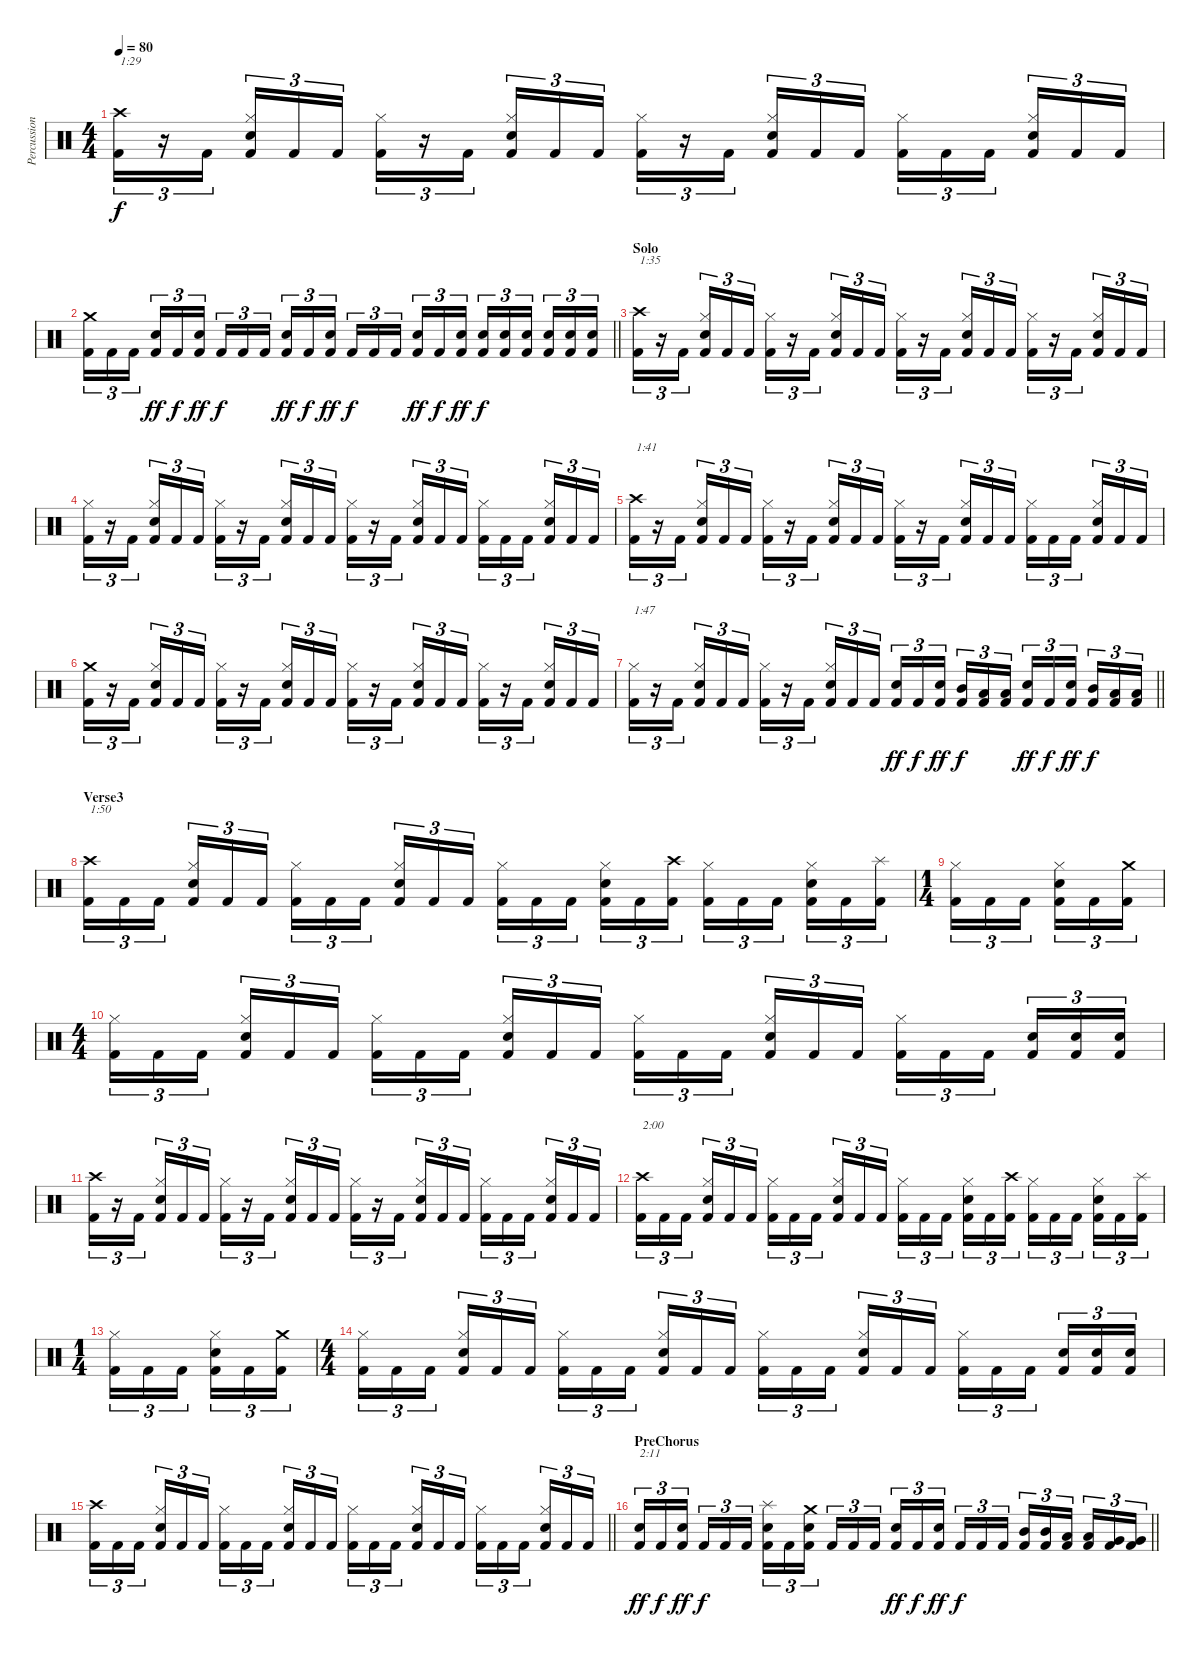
\track ("Percussion" "Percussion") {instrument percussion}
\staff {score}
\articulation defaults
\ts (4 4)
\tempo 80
\clef neutral
\ks c
("Crash high (hit)" "Kick (hit) 2").16{tu (3 2) txt "1:29" dy f} r.16{tu (3 2)} "Kick (hit) 2".16{tu (3 2) beam splitsecondary} ("Hi-Hat (closed)" "Snare (hit) 2" "Kick (hit) 2").16{tu (3 2)} "Kick (hit) 2".16{tu (3 2)} "Kick (hit) 2".16{tu (3 2)} ("Hi-Hat (closed)" "Kick (hit) 2").16{tu (3 2)} r.16{tu (3 2)} "Kick (hit) 2".16{tu (3 2) beam splitsecondary} ("Hi-Hat (closed)" "Snare (hit) 2" "Kick (hit) 2").16{tu (3 2)} "Kick (hit) 2".16{tu (3 2)} "Kick (hit) 2".16{tu (3 2)} ("Hi-Hat (closed)" "Kick (hit) 2").16{tu (3 2)} r.16{tu (3 2)} "Kick (hit) 2".16{tu (3 2) beam splitsecondary} ("Hi-Hat (closed)" "Snare (hit) 2" "Kick (hit) 2").16{tu (3 2)} "Kick (hit) 2".16{tu (3 2)} "Kick (hit) 2".16{tu (3 2)} ("Hi-Hat (closed)" "Kick (hit) 2").16{tu (3 2)} "Kick (hit) 2".16{tu (3 2)} "Kick (hit) 2".16{tu (3 2) beam splitsecondary} ("Hi-Hat (closed)" "Snare (hit) 2" "Kick (hit) 2").16{tu (3 2)} "Kick (hit) 2".16{tu (3 2)} "Kick (hit) 2".16{tu (3 2)} |
\barLineRight lightlight
("Crash medium (hit)" "Kick (hit) 2").16{tu (3 2)} "Kick (hit) 2".16{tu (3 2)} "Kick (hit) 2".16{tu (3 2) beam splitsecondary} ("Snare (hit) 2" "Kick (hit) 2").16{tu (3 2) dy ff} "Kick (hit) 2".16{tu (3 2) dy f} ("Snare (hit) 2" "Kick (hit) 2").16{tu (3 2) dy ff} "Kick (hit) 2".16{tu (3 2) dy f} "Kick (hit) 2".16{tu (3 2)} "Kick (hit) 2".16{tu (3 2) beam splitsecondary} ("Snare (hit) 2" "Kick (hit) 2").16{tu (3 2) dy ff} "Kick (hit) 2".16{tu (3 2) dy f} ("Snare (hit) 2" "Kick (hit) 2").16{tu (3 2) dy ff} "Kick (hit) 2".16{tu (3 2) dy f} "Kick (hit) 2".16{tu (3 2)} "Kick (hit) 2".16{tu (3 2) beam splitsecondary} ("Snare (hit) 2" "Kick (hit) 2").16{tu (3 2) dy ff} "Kick (hit) 2".16{tu (3 2) dy f} ("Snare (hit) 2" "Kick (hit) 2").16{tu (3 2) dy ff} ("Snare (hit) 2" "Kick (hit) 2").16{tu (3 2) dy f} ("Snare (hit) 2" "Kick (hit) 2").16{tu (3 2)} ("Snare (hit) 2" "Kick (hit) 2").16{tu (3 2) beam splitsecondary} ("Snare (hit) 2" "Kick (hit) 2").16{tu (3 2)} ("Snare (hit) 2" "Kick (hit) 2").16{tu (3 2)} ("Snare (hit) 2" "Kick (hit) 2").16{tu (3 2)} |
\section ("" "Solo")
("Crash high (hit)" "Kick (hit) 2").16{tu (3 2) txt "1:35"} r.16{tu (3 2)} "Kick (hit) 2".16{tu (3 2) beam splitsecondary} ("Hi-Hat (closed)" "Snare (hit) 2" "Kick (hit) 2").16{tu (3 2)} "Kick (hit) 2".16{tu (3 2)} "Kick (hit) 2".16{tu (3 2)} ("Hi-Hat (closed)" "Kick (hit) 2").16{tu (3 2)} r.16{tu (3 2)} "Kick (hit) 2".16{tu (3 2) beam splitsecondary} ("Hi-Hat (closed)" "Snare (hit) 2" "Kick (hit) 2").16{tu (3 2)} "Kick (hit) 2".16{tu (3 2)} "Kick (hit) 2".16{tu (3 2)} ("Hi-Hat (closed)" "Kick (hit) 2").16{tu (3 2)} r.16{tu (3 2)} "Kick (hit) 2".16{tu (3 2) beam splitsecondary} ("Hi-Hat (closed)" "Snare (hit) 2" "Kick (hit) 2").16{tu (3 2)} "Kick (hit) 2".16{tu (3 2)} "Kick (hit) 2".16{tu (3 2)} ("Hi-Hat (closed)" "Kick (hit) 2").16{tu (3 2)} r.16{tu (3 2)} "Kick (hit) 2".16{tu (3 2) beam splitsecondary} ("Hi-Hat (closed)" "Snare (hit) 2" "Kick (hit) 2").16{tu (3 2)} "Kick (hit) 2".16{tu (3 2)} "Kick (hit) 2".16{tu (3 2)} |
("Hi-Hat (closed)" "Kick (hit) 2").16{tu (3 2)} r.16{tu (3 2)} "Kick (hit) 2".16{tu (3 2) beam splitsecondary} ("Hi-Hat (closed)" "Snare (hit) 2" "Kick (hit) 2").16{tu (3 2)} "Kick (hit) 2".16{tu (3 2)} "Kick (hit) 2".16{tu (3 2)} ("Hi-Hat (closed)" "Kick (hit) 2").16{tu (3 2)} r.16{tu (3 2)} "Kick (hit) 2".16{tu (3 2) beam splitsecondary} ("Hi-Hat (closed)" "Snare (hit) 2" "Kick (hit) 2").16{tu (3 2)} "Kick (hit) 2".16{tu (3 2)} "Kick (hit) 2".16{tu (3 2)} ("Hi-Hat (closed)" "Kick (hit) 2").16{tu (3 2)} r.16{tu (3 2)} "Kick (hit) 2".16{tu (3 2) beam splitsecondary} ("Hi-Hat (closed)" "Snare (hit) 2" "Kick (hit) 2").16{tu (3 2)} "Kick (hit) 2".16{tu (3 2)} "Kick (hit) 2".16{tu (3 2)} ("Hi-Hat (closed)" "Kick (hit) 2").16{tu (3 2)} "Kick (hit) 2".16{tu (3 2)} "Kick (hit) 2".16{tu (3 2) beam splitsecondary} ("Hi-Hat (closed)" "Snare (hit) 2" "Kick (hit) 2").16{tu (3 2)} "Kick (hit) 2".16{tu (3 2)} "Kick (hit) 2".16{tu (3 2)} |
("Crash high (hit)" "Kick (hit) 2").16{tu (3 2) txt "1:41"} r.16{tu (3 2)} "Kick (hit) 2".16{tu (3 2) beam splitsecondary} ("Hi-Hat (closed)" "Snare (hit) 2" "Kick (hit) 2").16{tu (3 2)} "Kick (hit) 2".16{tu (3 2)} "Kick (hit) 2".16{tu (3 2)} ("Hi-Hat (closed)" "Kick (hit) 2").16{tu (3 2)} r.16{tu (3 2)} "Kick (hit) 2".16{tu (3 2) beam splitsecondary} ("Hi-Hat (closed)" "Snare (hit) 2" "Kick (hit) 2").16{tu (3 2)} "Kick (hit) 2".16{tu (3 2)} "Kick (hit) 2".16{tu (3 2)} ("Hi-Hat (closed)" "Kick (hit) 2").16{tu (3 2)} r.16{tu (3 2)} "Kick (hit) 2".16{tu (3 2) beam splitsecondary} ("Hi-Hat (closed)" "Snare (hit) 2" "Kick (hit) 2").16{tu (3 2)} "Kick (hit) 2".16{tu (3 2)} "Kick (hit) 2".16{tu (3 2)} ("Hi-Hat (closed)" "Kick (hit) 2").16{tu (3 2)} "Kick (hit) 2".16{tu (3 2)} "Kick (hit) 2".16{tu (3 2) beam splitsecondary} ("Hi-Hat (closed)" "Snare (hit) 2" "Kick (hit) 2").16{tu (3 2)} "Kick (hit) 2".16{tu (3 2)} "Kick (hit) 2".16{tu (3 2)} |
("Crash medium (hit)" "Kick (hit) 2").16{tu (3 2)} r.16{tu (3 2)} "Kick (hit) 2".16{tu (3 2) beam splitsecondary} ("Hi-Hat (closed)" "Snare (hit) 2" "Kick (hit) 2").16{tu (3 2)} "Kick (hit) 2".16{tu (3 2)} "Kick (hit) 2".16{tu (3 2)} ("Hi-Hat (closed)" "Kick (hit) 2").16{tu (3 2)} r.16{tu (3 2)} "Kick (hit) 2".16{tu (3 2) beam splitsecondary} ("Hi-Hat (closed)" "Snare (hit) 2" "Kick (hit) 2").16{tu (3 2)} "Kick (hit) 2".16{tu (3 2)} "Kick (hit) 2".16{tu (3 2)} ("Hi-Hat (closed)" "Kick (hit) 2").16{tu (3 2)} r.16{tu (3 2)} "Kick (hit) 2".16{tu (3 2) beam splitsecondary} ("Hi-Hat (closed)" "Snare (hit) 2" "Kick (hit) 2").16{tu (3 2)} "Kick (hit) 2".16{tu (3 2)} "Kick (hit) 2".16{tu (3 2)} ("Hi-Hat (closed)" "Kick (hit) 2").16{tu (3 2)} r.16{tu (3 2)} "Kick (hit) 2".16{tu (3 2) beam splitsecondary} ("Hi-Hat (closed)" "Snare (hit) 2" "Kick (hit) 2").16{tu (3 2)} "Kick (hit) 2".16{tu (3 2)} "Kick (hit) 2".16{tu (3 2)} |
\barLineRight lightlight
("Hi-Hat (closed)" "Kick (hit) 2").16{tu (3 2) txt "1:47"} r.16{tu (3 2)} "Kick (hit) 2".16{tu (3 2) beam splitsecondary} ("Hi-Hat (closed)" "Snare (hit) 2" "Kick (hit) 2").16{tu (3 2)} "Kick (hit) 2".16{tu (3 2)} "Kick (hit) 2".16{tu (3 2)} ("Hi-Hat (closed)" "Kick (hit) 2").16{tu (3 2)} r.16{tu (3 2)} "Kick (hit) 2".16{tu (3 2) beam splitsecondary} ("Hi-Hat (closed)" "Snare (hit) 2" "Kick (hit) 2").16{tu (3 2)} "Kick (hit) 2".16{tu (3 2)} "Kick (hit) 2".16{tu (3 2)} ("Snare (hit) 2" "Kick (hit) 2").16{tu (3 2) dy ff} "Kick (hit) 2".16{tu (3 2) dy f} ("Snare (hit) 2" "Kick (hit) 2").16{tu (3 2) dy ff beam splitsecondary} ("Mid Tom (hit)" "Kick (hit) 2").16{tu (3 2) dy f} ("Low Tom (hit)" "Kick (hit) 2").16{tu (3 2)} ("Low Tom (hit)" "Kick (hit) 2").16{tu (3 2)} ("Snare (hit) 2" "Kick (hit) 2").16{tu (3 2) dy ff} "Kick (hit) 2".16{tu (3 2) dy f} ("Snare (hit) 2" "Kick (hit) 2").16{tu (3 2) dy ff beam splitsecondary} ("Mid Tom (hit)" "Kick (hit) 2").16{tu (3 2) dy f} ("Low Tom (hit)" "Kick (hit) 2").16{tu (3 2)} ("Low Tom (hit)" "Kick (hit) 2").16{tu (3 2)} |
\section ("" "Verse3")
("Crash high (hit)" "Kick (hit) 2").16{tu (3 2) txt "1:50"} "Kick (hit) 2".16{tu (3 2)} "Kick (hit) 2".16{tu (3 2) beam splitsecondary} ("Hi-Hat (closed)" "Snare (hit) 2" "Kick (hit) 2").16{tu (3 2)} "Kick (hit) 2".16{tu (3 2)} "Kick (hit) 2".16{tu (3 2)} ("Hi-Hat (closed)" "Kick (hit) 2").16{tu (3 2)} "Kick (hit) 2".16{tu (3 2)} "Kick (hit) 2".16{tu (3 2) beam splitsecondary} ("Hi-Hat (closed)" "Snare (hit) 2" "Kick (hit) 2").16{tu (3 2)} "Kick (hit) 2".16{tu (3 2)} "Kick (hit) 2".16{tu (3 2)} ("Hi-Hat (closed)" "Kick (hit) 2").16{tu (3 2)} "Kick (hit) 2".16{tu (3 2)} "Kick (hit) 2".16{tu (3 2) beam splitsecondary} ("Hi-Hat (closed)" "Snare (hit) 2" "Kick (hit) 2").16{tu (3 2)} "Kick (hit) 2".16{tu (3 2)} ("Crash high (hit)" "Kick (hit) 2").16{tu (3 2)} ("Hi-Hat (closed)" "Kick (hit) 2").16{tu (3 2)} "Kick (hit) 2".16{tu (3 2)} "Kick (hit) 2".16{tu (3 2) beam splitsecondary} ("Hi-Hat (closed)" "Snare (hit) 2" "Kick (hit) 2").16{tu (3 2)} "Kick (hit) 2".16{tu (3 2)} ("Splash (hit)" "Kick (hit) 2").16{tu (3 2)} |
\ts (1 4)
("Hi-Hat (closed)" "Kick (hit) 2").16{tu (3 2)} "Kick (hit) 2".16{tu (3 2)} "Kick (hit) 2".16{tu (3 2) beam splitsecondary} ("Hi-Hat (closed)" "Snare (hit) 2" "Kick (hit) 2").16{tu (3 2)} "Kick (hit) 2".16{tu (3 2)} ("Crash medium (hit)" "Kick (hit) 2").16{tu (3 2)} |
\ts (4 4)
("Hi-Hat (closed)" "Kick (hit) 2").16{tu (3 2)} "Kick (hit) 2".16{tu (3 2)} "Kick (hit) 2".16{tu (3 2) beam splitsecondary} ("Hi-Hat (closed)" "Snare (hit) 2" "Kick (hit) 2").16{tu (3 2)} "Kick (hit) 2".16{tu (3 2)} "Kick (hit) 2".16{tu (3 2)} ("Hi-Hat (closed)" "Kick (hit) 2").16{tu (3 2)} "Kick (hit) 2".16{tu (3 2)} "Kick (hit) 2".16{tu (3 2) beam splitsecondary} ("Hi-Hat (closed)" "Snare (hit) 2" "Kick (hit) 2").16{tu (3 2)} "Kick (hit) 2".16{tu (3 2)} "Kick (hit) 2".16{tu (3 2)} ("Hi-Hat (closed)" "Kick (hit) 2").16{tu (3 2)} "Kick (hit) 2".16{tu (3 2)} "Kick (hit) 2".16{tu (3 2) beam splitsecondary} ("Hi-Hat (closed)" "Snare (hit) 2" "Kick (hit) 2").16{tu (3 2)} "Kick (hit) 2".16{tu (3 2)} "Kick (hit) 2".16{tu (3 2)} ("Hi-Hat (closed)" "Kick (hit) 2").16{tu (3 2)} "Kick (hit) 2".16{tu (3 2)} "Kick (hit) 2".16{tu (3 2) beam splitsecondary} ("Snare (hit) 2" "Kick (hit) 2").16{tu (3 2)} ("Snare (hit) 2" "Kick (hit) 2").16{tu (3 2)} ("Snare (hit) 2" "Kick (hit) 2").16{tu (3 2)} |
("Crash high (hit)" "Kick (hit) 2").16{tu (3 2)} r.16{tu (3 2)} "Kick (hit) 2".16{tu (3 2) beam splitsecondary} ("Hi-Hat (closed)" "Snare (hit) 2" "Kick (hit) 2").16{tu (3 2)} "Kick (hit) 2".16{tu (3 2)} "Kick (hit) 2".16{tu (3 2)} ("Hi-Hat (closed)" "Kick (hit) 2").16{tu (3 2)} r.16{tu (3 2)} "Kick (hit) 2".16{tu (3 2) beam splitsecondary} ("Hi-Hat (closed)" "Snare (hit) 2" "Kick (hit) 2").16{tu (3 2)} "Kick (hit) 2".16{tu (3 2)} "Kick (hit) 2".16{tu (3 2)} ("Hi-Hat (closed)" "Kick (hit) 2").16{tu (3 2)} r.16{tu (3 2)} "Kick (hit) 2".16{tu (3 2) beam splitsecondary} ("Hi-Hat (closed)" "Snare (hit) 2" "Kick (hit) 2").16{tu (3 2)} "Kick (hit) 2".16{tu (3 2)} "Kick (hit) 2".16{tu (3 2)} ("Hi-Hat (closed)" "Kick (hit) 2").16{tu (3 2)} "Kick (hit) 2".16{tu (3 2)} "Kick (hit) 2".16{tu (3 2) beam splitsecondary} ("Hi-Hat (closed)" "Snare (hit) 2" "Kick (hit) 2").16{tu (3 2)} "Kick (hit) 2".16{tu (3 2)} "Kick (hit) 2".16{tu (3 2)} |
("Crash high (hit)" "Kick (hit) 2").16{tu (3 2) txt "2:00"} "Kick (hit) 2".16{tu (3 2)} "Kick (hit) 2".16{tu (3 2) beam splitsecondary} ("Hi-Hat (closed)" "Snare (hit) 2" "Kick (hit) 2").16{tu (3 2)} "Kick (hit) 2".16{tu (3 2)} "Kick (hit) 2".16{tu (3 2)} ("Hi-Hat (closed)" "Kick (hit) 2").16{tu (3 2)} "Kick (hit) 2".16{tu (3 2)} "Kick (hit) 2".16{tu (3 2) beam splitsecondary} ("Hi-Hat (closed)" "Snare (hit) 2" "Kick (hit) 2").16{tu (3 2)} "Kick (hit) 2".16{tu (3 2)} "Kick (hit) 2".16{tu (3 2)} ("Hi-Hat (closed)" "Kick (hit) 2").16{tu (3 2)} "Kick (hit) 2".16{tu (3 2)} "Kick (hit) 2".16{tu (3 2) beam splitsecondary} ("Hi-Hat (closed)" "Snare (hit) 2" "Kick (hit) 2").16{tu (3 2)} "Kick (hit) 2".16{tu (3 2)} ("Crash high (hit)" "Kick (hit) 2").16{tu (3 2)} ("Hi-Hat (closed)" "Kick (hit) 2").16{tu (3 2)} "Kick (hit) 2".16{tu (3 2)} "Kick (hit) 2".16{tu (3 2) beam splitsecondary} ("Hi-Hat (closed)" "Snare (hit) 2" "Kick (hit) 2").16{tu (3 2)} "Kick (hit) 2".16{tu (3 2)} ("Splash (hit)" "Kick (hit) 2").16{tu (3 2)} |
\ts (1 4)
("Hi-Hat (closed)" "Kick (hit) 2").16{tu (3 2)} "Kick (hit) 2".16{tu (3 2)} "Kick (hit) 2".16{tu (3 2) beam splitsecondary} ("Hi-Hat (closed)" "Snare (hit) 2" "Kick (hit) 2").16{tu (3 2)} "Kick (hit) 2".16{tu (3 2)} ("Crash medium (hit)" "Kick (hit) 2").16{tu (3 2)} |
\ts (4 4)
("Hi-Hat (closed)" "Kick (hit) 2").16{tu (3 2)} "Kick (hit) 2".16{tu (3 2)} "Kick (hit) 2".16{tu (3 2) beam splitsecondary} ("Hi-Hat (closed)" "Snare (hit) 2" "Kick (hit) 2").16{tu (3 2)} "Kick (hit) 2".16{tu (3 2)} "Kick (hit) 2".16{tu (3 2)} ("Hi-Hat (closed)" "Kick (hit) 2").16{tu (3 2)} "Kick (hit) 2".16{tu (3 2)} "Kick (hit) 2".16{tu (3 2) beam splitsecondary} ("Hi-Hat (closed)" "Snare (hit) 2" "Kick (hit) 2").16{tu (3 2)} "Kick (hit) 2".16{tu (3 2)} "Kick (hit) 2".16{tu (3 2)} ("Hi-Hat (closed)" "Kick (hit) 2").16{tu (3 2)} "Kick (hit) 2".16{tu (3 2)} "Kick (hit) 2".16{tu (3 2) beam splitsecondary} ("Hi-Hat (closed)" "Snare (hit) 2" "Kick (hit) 2").16{tu (3 2)} "Kick (hit) 2".16{tu (3 2)} "Kick (hit) 2".16{tu (3 2)} ("Hi-Hat (closed)" "Kick (hit) 2").16{tu (3 2)} "Kick (hit) 2".16{tu (3 2)} "Kick (hit) 2".16{tu (3 2) beam splitsecondary} ("Snare (hit) 2" "Kick (hit) 2").16{tu (3 2)} ("Snare (hit) 2" "Kick (hit) 2").16{tu (3 2)} ("Snare (hit) 2" "Kick (hit) 2").16{tu (3 2)} |
\barLineRight lightlight
("Crash high (hit)" "Kick (hit) 2").16{tu (3 2)} "Kick (hit) 2".16{tu (3 2)} "Kick (hit) 2".16{tu (3 2) beam splitsecondary} ("Hi-Hat (closed)" "Snare (hit) 2" "Kick (hit) 2").16{tu (3 2)} "Kick (hit) 2".16{tu (3 2)} "Kick (hit) 2".16{tu (3 2)} ("Hi-Hat (closed)" "Kick (hit) 2").16{tu (3 2)} "Kick (hit) 2".16{tu (3 2)} "Kick (hit) 2".16{tu (3 2) beam splitsecondary} ("Hi-Hat (closed)" "Snare (hit) 2" "Kick (hit) 2").16{tu (3 2)} "Kick (hit) 2".16{tu (3 2)} "Kick (hit) 2".16{tu (3 2)} ("Hi-Hat (closed)" "Kick (hit) 2").16{tu (3 2)} "Kick (hit) 2".16{tu (3 2)} "Kick (hit) 2".16{tu (3 2) beam splitsecondary} ("Hi-Hat (closed)" "Snare (hit) 2" "Kick (hit) 2").16{tu (3 2)} "Kick (hit) 2".16{tu (3 2)} "Kick (hit) 2".16{tu (3 2)} ("Hi-Hat (closed)" "Kick (hit) 2").16{tu (3 2)} "Kick (hit) 2".16{tu (3 2)} "Kick (hit) 2".16{tu (3 2) beam splitsecondary} ("Hi-Hat (closed)" "Snare (hit) 2" "Kick (hit) 2").16{tu (3 2)} "Kick (hit) 2".16{tu (3 2)} "Kick (hit) 2".16{tu (3 2)} |
\section ("" "PreChorus")
\barLineRight lightlight
("Snare (hit) 2" "Kick (hit) 2").16{tu (3 2) txt "2:11" dy ff} "Kick (hit) 2".16{tu (3 2) dy f} ("Snare (hit) 2" "Kick (hit) 2").16{tu (3 2) dy ff beam splitsecondary} "Kick (hit) 2".16{tu (3 2) dy f} "Kick (hit) 2".16{tu (3 2)} "Kick (hit) 2".16{tu (3 2)} ("Splash (hit)" "Snare (hit) 2" "Kick (hit) 2").16{tu (3 2)} "Kick (hit) 2".16{tu (3 2)} ("Crash medium (hit)" "Snare (hit) 2" "Kick (hit) 2").16{tu (3 2) beam splitsecondary} "Kick (hit) 2".16{tu (3 2)} "Kick (hit) 2".16{tu (3 2)} "Kick (hit) 2".16{tu (3 2)} ("Snare (hit) 2" "Kick (hit) 2").16{tu (3 2) dy ff} "Kick (hit) 2".16{tu (3 2) dy f} ("Snare (hit) 2" "Kick (hit) 2").16{tu (3 2) dy ff beam splitsecondary} "Kick (hit) 2".16{tu (3 2) dy f} "Kick (hit) 2".16{tu (3 2)} "Kick (hit) 2".16{tu (3 2)} ("Mid Tom (hit)" "Kick (hit) 2").16{tu (3 2)} ("Mid Tom (hit)" "Kick (hit) 2").16{tu (3 2)} ("Low Tom (hit)" "Kick (hit) 2").16{tu (3 2) beam splitsecondary} ("Low Tom (hit)" "Kick (hit) 2").16{tu (3 2)} ("Very Low Tom (hit)" "Kick (hit) 2").16{tu (3 2)} ("Very Low Tom (hit)" "Kick (hit) 2").16{tu (3 2)}
